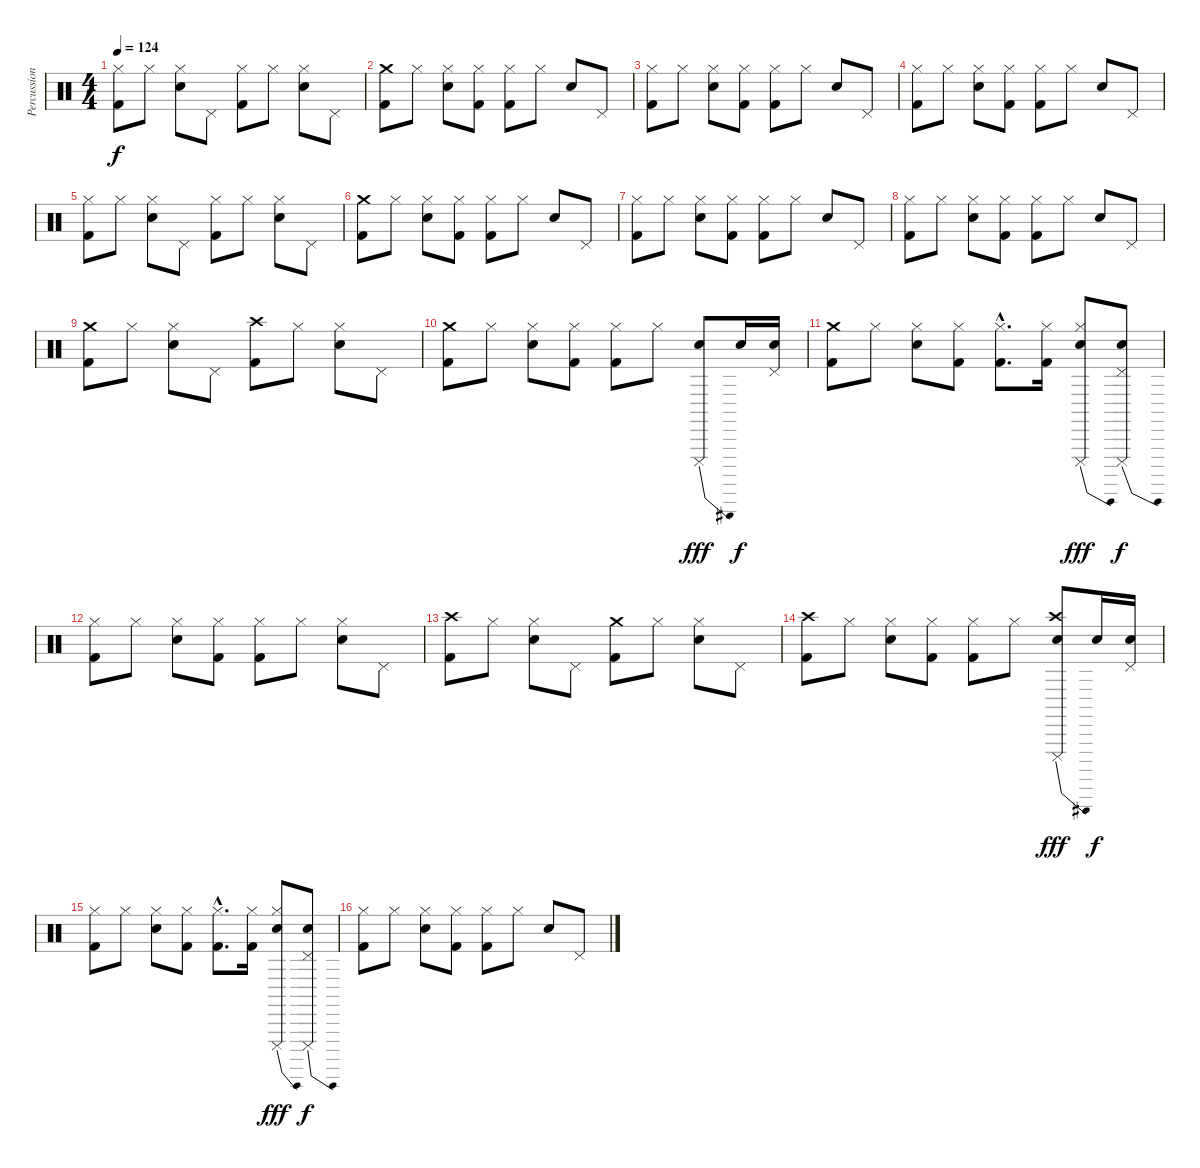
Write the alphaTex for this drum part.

\track ("Percussions" "Percussion") {instrument percussion}
\staff {score}
\articulation defaults
\ts (4 4)
\tempo 124
\clef neutral
\ks c
("Hi-Hat (closed)" "Kick (hit) 2").8{dy f} "Hi-Hat (closed)".8 ("Hi-Hat (closed)" "Electric Snare (hit)").8 "Pedal Hi-Hat (hit)".8 ("Hi-Hat (closed)" "Kick (hit) 2").8 "Hi-Hat (closed)".8 ("Hi-Hat (closed)" "Electric Snare (hit)").8 "Pedal Hi-Hat (hit)".8 |
("Crash medium (hit)" "Kick (hit) 2").8 "Hi-Hat (closed)".8 ("Hi-Hat (closed)" "Electric Snare (hit)").8 ("Hi-Hat (closed)" "Kick (hit) 2").8 ("Hi-Hat (closed)" "Kick (hit) 2").8 "Hi-Hat (closed)".8 "Electric Snare (hit)".8 "Pedal Hi-Hat (hit)".8 |
("Hi-Hat (closed)" "Kick (hit) 2").8 "Hi-Hat (closed)".8 ("Hi-Hat (closed)" "Electric Snare (hit)").8 ("Hi-Hat (closed)" "Kick (hit) 2").8 ("Hi-Hat (closed)" "Kick (hit) 2").8 "Hi-Hat (closed)".8 "Electric Snare (hit)".8 "Pedal Hi-Hat (hit)".8 |
("Hi-Hat (closed)" "Kick (hit) 2").8 "Hi-Hat (closed)".8 ("Hi-Hat (closed)" "Electric Snare (hit)").8 ("Hi-Hat (closed)" "Kick (hit) 2").8 ("Hi-Hat (closed)" "Kick (hit) 2").8 "Hi-Hat (closed)".8 "Electric Snare (hit)".8 "Pedal Hi-Hat (hit)".8 |
("Hi-Hat (closed)" "Kick (hit) 2").8 "Hi-Hat (closed)".8 ("Hi-Hat (closed)" "Electric Snare (hit)").8 "Pedal Hi-Hat (hit)".8 ("Hi-Hat (closed)" "Kick (hit) 2").8 "Hi-Hat (closed)".8 ("Hi-Hat (closed)" "Electric Snare (hit)").8 "Pedal Hi-Hat (hit)".8 |
("Crash medium (hit)" "Kick (hit) 2").8 "Hi-Hat (closed)".8 ("Hi-Hat (closed)" "Electric Snare (hit)").8 ("Hi-Hat (closed)" "Kick (hit) 2").8 ("Hi-Hat (closed)" "Kick (hit) 2").8 "Hi-Hat (closed)".8 "Electric Snare (hit)".8 "Pedal Hi-Hat (hit)".8 |
("Hi-Hat (closed)" "Kick (hit) 2").8 "Hi-Hat (closed)".8 ("Hi-Hat (closed)" "Electric Snare (hit)").8 ("Hi-Hat (closed)" "Kick (hit) 2").8 ("Hi-Hat (closed)" "Kick (hit) 2").8 "Hi-Hat (closed)".8 "Electric Snare (hit)".8 "Pedal Hi-Hat (hit)".8 |
("Hi-Hat (closed)" "Kick (hit) 2").8 "Hi-Hat (closed)".8 ("Hi-Hat (closed)" "Electric Snare (hit)").8 ("Hi-Hat (closed)" "Kick (hit) 2").8 ("Hi-Hat (closed)" "Kick (hit) 2").8 "Hi-Hat (closed)".8 "Electric Snare (hit)".8 "Pedal Hi-Hat (hit)".8 |
("Crash medium (hit)" "Kick (hit) 2").8 "Hi-Hat (closed)".8 ("Hi-Hat (closed)" "Electric Snare (hit)").8 "Pedal Hi-Hat (hit)".8 ("Crash high (hit)" "Kick (hit) 2").8 "Hi-Hat (closed)".8 ("Hi-Hat (closed)" "Electric Snare (hit)").8 "Pedal Hi-Hat (hit)".8 |
("Crash medium (hit)" "Kick (hit) 2").8 "Hi-Hat (closed)".8 ("Hi-Hat (closed)" "Electric Snare (hit)").8 ("Hi-Hat (closed)" "Kick (hit) 2").8 ("Hi-Hat (closed)" "Kick (hit) 2").8 "Hi-Hat (closed)".8 ("Cuica (mute)"{be (bend 0 0 60 4)} "Electric Snare (hit)").8{dy fff} "Electric Snare (hit)".16{dy f} ("Pedal Hi-Hat (hit)" "Electric Snare (hit)").16 |
("Crash medium (hit)" "Kick (hit) 2").8 "Hi-Hat (closed)".8 ("Hi-Hat (closed)" "Electric Snare (hit)").8 ("Hi-Hat (closed)" "Kick (hit) 2").8 ("Hi-Hat (closed)"{hac} "Kick (hit) 2"{hac}).8{d} ("Hi-Hat (closed)" "Kick (hit) 2").16 ("Hi-Hat (closed)" "Cuica (mute)"{be (bend 0 0 60 12)} "Electric Snare (hit)").8{dy fff} ("Pedal Hi-Hat (hit)" "Cuica (mute)"{be (bend 0 0 60 12)} "Electric Snare (hit)").8{dy f} |
("Hi-Hat (closed)" "Kick (hit) 2").8 "Hi-Hat (closed)".8 ("Hi-Hat (closed)" "Electric Snare (hit)").8 ("Hi-Hat (closed)" "Kick (hit) 2").8 ("Hi-Hat (closed)" "Kick (hit) 2").8 "Hi-Hat (closed)".8 ("Hi-Hat (closed)" "Electric Snare (hit)").8 "Pedal Hi-Hat (hit)".8 |
("Crash high (hit)" "Kick (hit) 2").8 "Hi-Hat (closed)".8 ("Hi-Hat (closed)" "Electric Snare (hit)").8 "Pedal Hi-Hat (hit)".8 ("Crash medium (hit)" "Kick (hit) 2").8 "Hi-Hat (closed)".8 ("Hi-Hat (closed)" "Electric Snare (hit)").8 "Pedal Hi-Hat (hit)".8 |
("Crash high (hit)" "Kick (hit) 2").8 "Hi-Hat (closed)".8 ("Hi-Hat (closed)" "Electric Snare (hit)").8 ("Hi-Hat (closed)" "Kick (hit) 2").8 ("Hi-Hat (closed)" "Kick (hit) 2").8 "Hi-Hat (closed)".8 ("Crash high (hit)" "Cuica (mute)"{be (bend 0 0 60 4)} "Electric Snare (hit)").8{dy fff} "Electric Snare (hit)".16{dy f} ("Pedal Hi-Hat (hit)" "Electric Snare (hit)").16 |
("Hi-Hat (closed)" "Kick (hit) 2").8 "Hi-Hat (closed)".8 ("Hi-Hat (closed)" "Electric Snare (hit)").8 ("Hi-Hat (closed)" "Kick (hit) 2").8 ("Hi-Hat (closed)"{hac} "Kick (hit) 2"{hac}).8{d} ("Hi-Hat (closed)" "Kick (hit) 2").16 ("Hi-Hat (closed)" "Cuica (mute)"{be (bend 0 0 60 12)} "Electric Snare (hit)").8{dy fff} ("Pedal Hi-Hat (hit)" "Cuica (mute)"{be (bend 0 0 60 12)} "Electric Snare (hit)").8{dy f} |
("Hi-Hat (closed)" "Kick (hit) 2").8 "Hi-Hat (closed)".8 ("Hi-Hat (closed)" "Electric Snare (hit)").8 ("Hi-Hat (closed)" "Kick (hit) 2").8 ("Hi-Hat (closed)" "Kick (hit) 2").8 "Hi-Hat (closed)".8 "Electric Snare (hit)".8 "Pedal Hi-Hat (hit)".8
